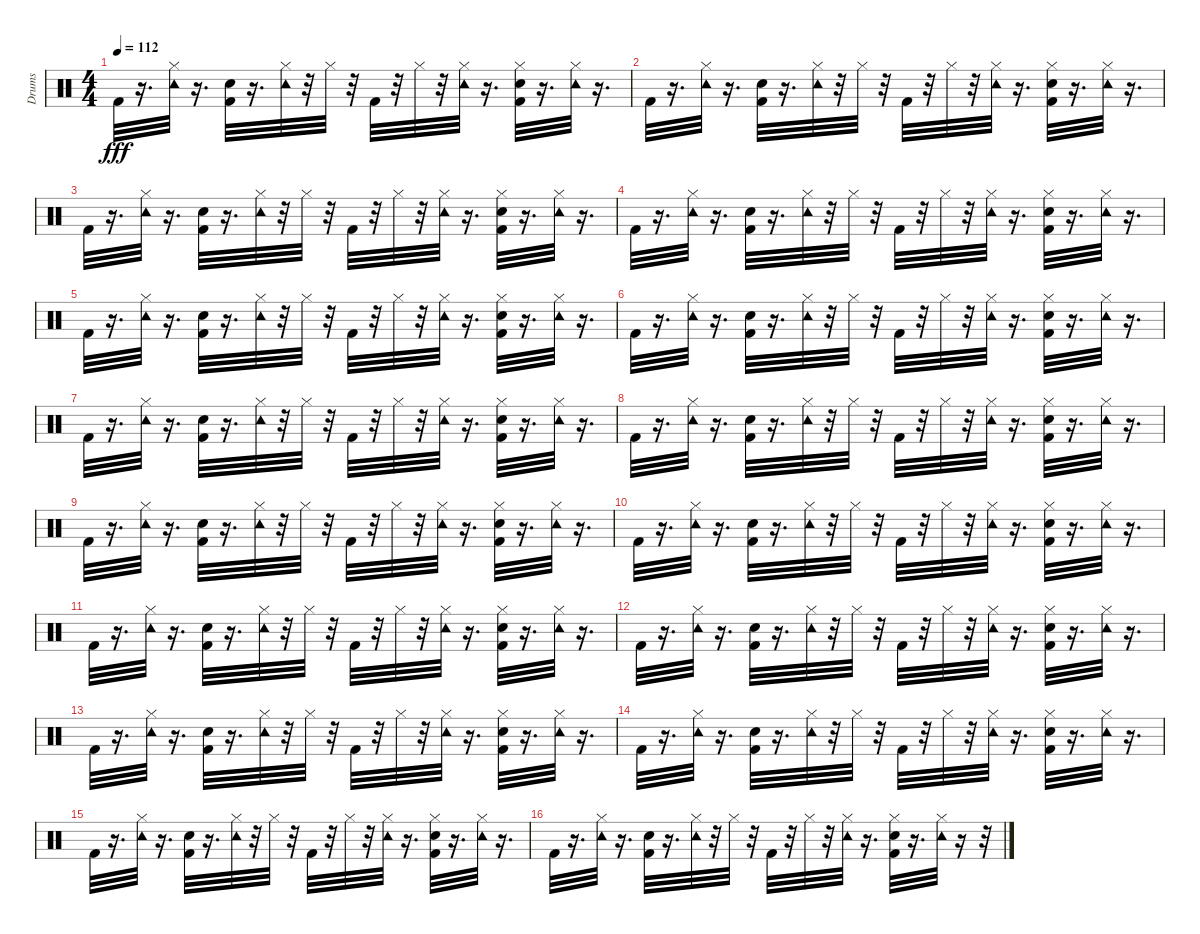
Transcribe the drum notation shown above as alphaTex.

\track ("Drums" "Drums") {instrument percussion}
\staff {score}
\articulation defaults
\ts (4 4)
\tempo 112
\clef neutral
\ks c "Kick (hit) 2".32{dy fff volume 16}
r.16{d} ("Tambourine (hit)" "Hi-Hat (closed)").32 r.16{d} ("Snare (hit) 2" "Kick (hit) 2").32 r.16{d} ("Tambourine (hit)" "Hi-Hat (closed)").32 r.32 "Hi-Hat (closed)".32 r.32 "Kick (hit) 2".32 r.32 "Hi-Hat (closed)".32 r.32 ("Tambourine (hit)" "Hi-Hat (closed)").32 r.16{d} ("Snare (hit) 2" "Hi-Hat (closed)" "Kick (hit) 2").32 r.16{d} ("Tambourine (hit)" "Hi-Hat (closed)").32 r.16{d} |
"Kick (hit) 2".32 r.16{d} ("Tambourine (hit)" "Hi-Hat (closed)").32 r.16{d} ("Snare (hit) 2" "Kick (hit) 2").32 r.16{d} ("Tambourine (hit)" "Hi-Hat (closed)").32 r.32 "Hi-Hat (closed)".32 r.32 "Kick (hit) 2".32 r.32 "Hi-Hat (closed)".32 r.32 ("Tambourine (hit)" "Hi-Hat (closed)").32 r.16{d} ("Snare (hit) 2" "Hi-Hat (closed)" "Kick (hit) 2").32 r.16{d} ("Tambourine (hit)" "Hi-Hat (closed)").32 r.16{d} |
"Kick (hit) 2".32 r.16{d} ("Tambourine (hit)" "Hi-Hat (closed)").32 r.16{d} ("Snare (hit) 2" "Kick (hit) 2").32 r.16{d} ("Tambourine (hit)" "Hi-Hat (closed)").32 r.32 "Hi-Hat (closed)".32 r.32 "Kick (hit) 2".32 r.32 "Hi-Hat (closed)".32 r.32 ("Tambourine (hit)" "Hi-Hat (closed)").32 r.16{d} ("Snare (hit) 2" "Hi-Hat (closed)" "Kick (hit) 2").32 r.16{d} ("Tambourine (hit)" "Hi-Hat (closed)").32 r.16{d} |
"Kick (hit) 2".32 r.16{d} ("Tambourine (hit)" "Hi-Hat (closed)").32 r.16{d} ("Snare (hit) 2" "Kick (hit) 2").32 r.16{d} ("Tambourine (hit)" "Hi-Hat (closed)").32 r.32 "Hi-Hat (closed)".32 r.32 "Kick (hit) 2".32 r.32 "Hi-Hat (closed)".32 r.32 ("Tambourine (hit)" "Hi-Hat (closed)").32 r.16{d} ("Snare (hit) 2" "Hi-Hat (closed)" "Kick (hit) 2").32 r.16{d} ("Tambourine (hit)" "Hi-Hat (closed)").32 r.16{d} |
"Kick (hit) 2".32 r.16{d} ("Tambourine (hit)" "Hi-Hat (closed)").32 r.16{d} ("Snare (hit) 2" "Kick (hit) 2").32 r.16{d} ("Tambourine (hit)" "Hi-Hat (closed)").32 r.32 "Hi-Hat (closed)".32 r.32 "Kick (hit) 2".32 r.32 "Hi-Hat (closed)".32 r.32 ("Tambourine (hit)" "Hi-Hat (closed)").32 r.16{d} ("Snare (hit) 2" "Hi-Hat (closed)" "Kick (hit) 2").32 r.16{d} ("Tambourine (hit)" "Hi-Hat (closed)").32 r.16{d} |
"Kick (hit) 2".32 r.16{d} ("Tambourine (hit)" "Hi-Hat (closed)").32 r.16{d} ("Snare (hit) 2" "Kick (hit) 2").32 r.16{d} ("Tambourine (hit)" "Hi-Hat (closed)").32 r.32 "Hi-Hat (closed)".32 r.32 "Kick (hit) 2".32 r.32 "Hi-Hat (closed)".32 r.32 ("Tambourine (hit)" "Hi-Hat (closed)").32 r.16{d} ("Snare (hit) 2" "Hi-Hat (closed)" "Kick (hit) 2").32 r.16{d} ("Tambourine (hit)" "Hi-Hat (closed)").32 r.16{d} |
"Kick (hit) 2".32 r.16{d} ("Tambourine (hit)" "Hi-Hat (closed)").32 r.16{d} ("Snare (hit) 2" "Kick (hit) 2").32 r.16{d} ("Tambourine (hit)" "Hi-Hat (closed)").32 r.32 "Hi-Hat (closed)".32 r.32 "Kick (hit) 2".32 r.32 "Hi-Hat (closed)".32 r.32 ("Tambourine (hit)" "Hi-Hat (closed)").32 r.16{d} ("Snare (hit) 2" "Hi-Hat (closed)" "Kick (hit) 2").32 r.16{d} ("Tambourine (hit)" "Hi-Hat (closed)").32 r.16{d} |
"Kick (hit) 2".32 r.16{d} ("Tambourine (hit)" "Hi-Hat (closed)").32 r.16{d} ("Snare (hit) 2" "Kick (hit) 2").32 r.16{d} ("Tambourine (hit)" "Hi-Hat (closed)").32 r.32 "Hi-Hat (closed)".32 r.32 "Kick (hit) 2".32 r.32 "Hi-Hat (closed)".32 r.32 ("Tambourine (hit)" "Hi-Hat (closed)").32 r.16{d} ("Snare (hit) 2" "Hi-Hat (closed)" "Kick (hit) 2").32 r.16{d} ("Tambourine (hit)" "Hi-Hat (closed)").32 r.16{d} |
"Kick (hit) 2".32{volume 16} r.16{d} ("Tambourine (hit)" "Hi-Hat (closed)").32 r.16{d} ("Snare (hit) 2" "Kick (hit) 2").32 r.16{d} ("Tambourine (hit)" "Hi-Hat (closed)").32 r.32 "Hi-Hat (closed)".32 r.32 "Kick (hit) 2".32 r.32 "Hi-Hat (closed)".32 r.32 ("Tambourine (hit)" "Hi-Hat (closed)").32 r.16{d} ("Snare (hit) 2" "Hi-Hat (closed)" "Kick (hit) 2").32 r.16{d} ("Tambourine (hit)" "Hi-Hat (closed)").32 r.16{d} |
"Kick (hit) 2".32 r.16{d} ("Tambourine (hit)" "Hi-Hat (closed)").32 r.16{d} ("Snare (hit) 2" "Kick (hit) 2").32 r.16{d} ("Tambourine (hit)" "Hi-Hat (closed)").32 r.32 "Hi-Hat (closed)".32 r.32 "Kick (hit) 2".32 r.32 "Hi-Hat (closed)".32 r.32 ("Tambourine (hit)" "Hi-Hat (closed)").32 r.16{d} ("Snare (hit) 2" "Hi-Hat (closed)" "Kick (hit) 2").32 r.16{d} ("Tambourine (hit)" "Hi-Hat (closed)").32 r.16{d} |
"Kick (hit) 2".32 r.16{d} ("Tambourine (hit)" "Hi-Hat (closed)").32 r.16{d} ("Snare (hit) 2" "Kick (hit) 2").32 r.16{d} ("Tambourine (hit)" "Hi-Hat (closed)").32 r.32 "Hi-Hat (closed)".32 r.32 "Kick (hit) 2".32 r.32 "Hi-Hat (closed)".32 r.32 ("Tambourine (hit)" "Hi-Hat (closed)").32 r.16{d} ("Snare (hit) 2" "Hi-Hat (closed)" "Kick (hit) 2").32 r.16{d} ("Tambourine (hit)" "Hi-Hat (closed)").32 r.16{d} |
"Kick (hit) 2".32 r.16{d} ("Tambourine (hit)" "Hi-Hat (closed)").32 r.16{d} ("Snare (hit) 2" "Kick (hit) 2").32 r.16{d} ("Tambourine (hit)" "Hi-Hat (closed)").32 r.32 "Hi-Hat (closed)".32 r.32 "Kick (hit) 2".32 r.32 "Hi-Hat (closed)".32 r.32 ("Tambourine (hit)" "Hi-Hat (closed)").32 r.16{d} ("Snare (hit) 2" "Hi-Hat (closed)" "Kick (hit) 2").32 r.16{d} ("Tambourine (hit)" "Hi-Hat (closed)").32 r.16{d} |
"Kick (hit) 2".32 r.16{d} ("Tambourine (hit)" "Hi-Hat (closed)").32 r.16{d} ("Snare (hit) 2" "Kick (hit) 2").32 r.16{d} ("Tambourine (hit)" "Hi-Hat (closed)").32 r.32 "Hi-Hat (closed)".32 r.32 "Kick (hit) 2".32 r.32 "Hi-Hat (closed)".32 r.32 ("Tambourine (hit)" "Hi-Hat (closed)").32 r.16{d} ("Snare (hit) 2" "Hi-Hat (closed)" "Kick (hit) 2").32 r.16{d} ("Tambourine (hit)" "Hi-Hat (closed)").32 r.16{d} |
"Kick (hit) 2".32 r.16{d} ("Tambourine (hit)" "Hi-Hat (closed)").32 r.16{d} ("Snare (hit) 2" "Kick (hit) 2").32 r.16{d} ("Tambourine (hit)" "Hi-Hat (closed)").32 r.32 "Hi-Hat (closed)".32 r.32 "Kick (hit) 2".32 r.32 "Hi-Hat (closed)".32 r.32 ("Tambourine (hit)" "Hi-Hat (closed)").32 r.16{d} ("Snare (hit) 2" "Hi-Hat (closed)" "Kick (hit) 2").32 r.16{d} ("Tambourine (hit)" "Hi-Hat (closed)").32 r.16{d} |
"Kick (hit) 2".32 r.16{d} ("Tambourine (hit)" "Hi-Hat (closed)").32 r.16{d} ("Snare (hit) 2" "Kick (hit) 2").32 r.16{d} ("Tambourine (hit)" "Hi-Hat (closed)").32 r.32 "Hi-Hat (closed)".32 r.32 "Kick (hit) 2".32 r.32 "Hi-Hat (closed)".32 r.32 ("Tambourine (hit)" "Hi-Hat (closed)").32 r.16{d} ("Snare (hit) 2" "Hi-Hat (closed)" "Kick (hit) 2").32 r.16{d} ("Tambourine (hit)" "Hi-Hat (closed)").32 r.16{d} |
"Kick (hit) 2".32 r.16{d} ("Tambourine (hit)" "Hi-Hat (closed)").32 r.16{d} ("Snare (hit) 2" "Kick (hit) 2").32 r.16{d} ("Tambourine (hit)" "Hi-Hat (closed)").32 r.32 "Hi-Hat (closed)".32 r.32 "Kick (hit) 2".32 r.32 "Hi-Hat (closed)".32 r.32 ("Tambourine (hit)" "Hi-Hat (closed)").32 r.16{d} ("Snare (hit) 2" "Hi-Hat (closed)" "Kick (hit) 2").32 r.16{d} ("Tambourine (hit)" "Hi-Hat (closed)").32 r.16 r.32
